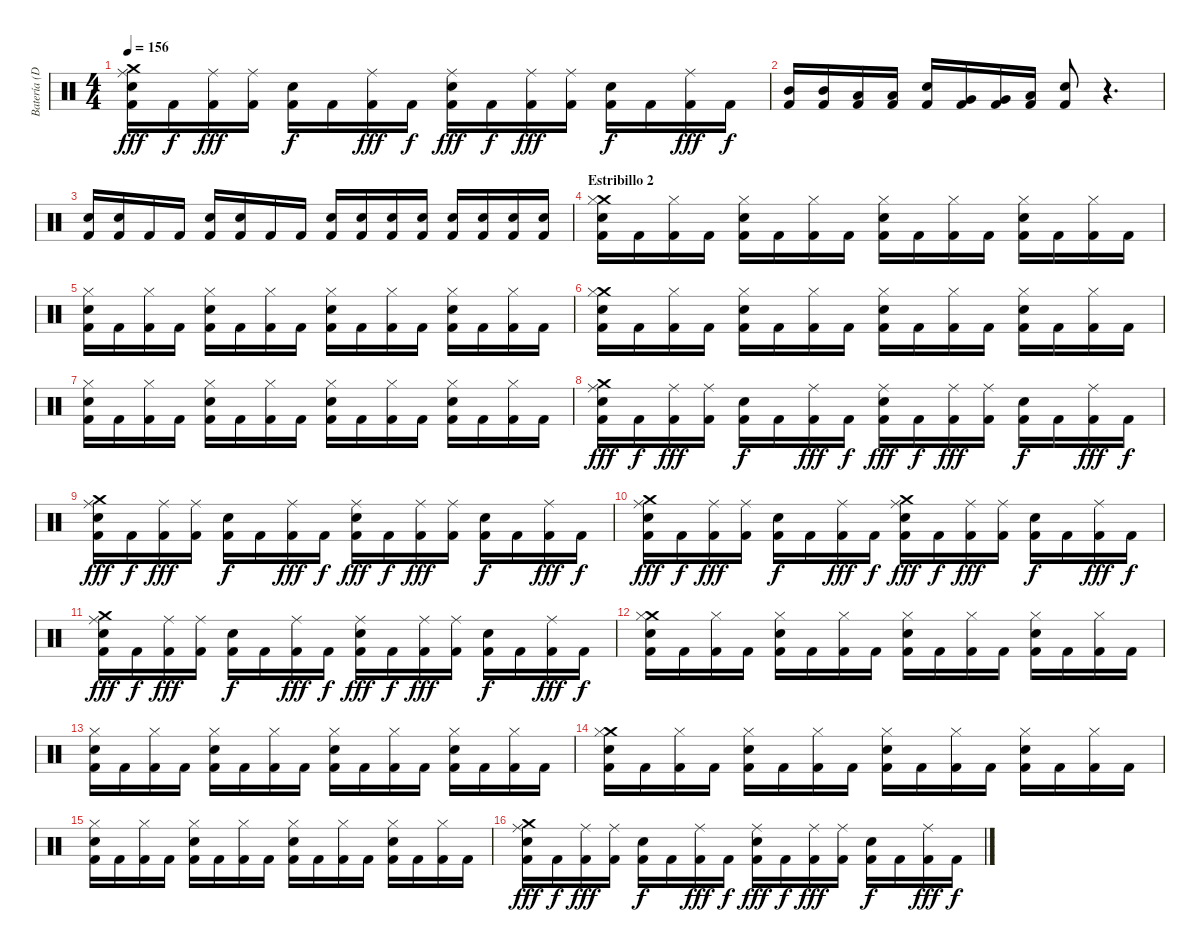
\track ("Batería (Dani)" "Batería (D") {instrument percussion}
\staff {score}
\articulation defaults
\ts (4 4)
\tempo 156
\clef neutral
\ks c
("Crash medium (hit)" "Ride (middle)" "Snare (hit) 2" "Kick (hit) 2").16{dy fff} "Kick (hit) 2".16{dy f} ("Ride (middle)" "Kick (hit) 2").16{dy fff} ("Ride (middle)" "Kick (hit) 2").16 ("Snare (hit) 2" "Kick (hit) 2").16{dy f} "Kick (hit) 2".16 ("Ride (middle)" "Kick (hit) 2").16{dy fff} "Kick (hit) 2".16{dy f} ("Ride (middle)" "Snare (hit) 2" "Kick (hit) 2").16{dy fff} "Kick (hit) 2".16{dy f} ("Ride (middle)" "Kick (hit) 2").16{dy fff} ("Ride (middle)" "Kick (hit) 2").16 ("Snare (hit) 2" "Kick (hit) 2").16{dy f} "Kick (hit) 2".16 ("Ride (middle)" "Kick (hit) 2").16{dy fff} "Kick (hit) 2".16{dy f} |
("Mid Tom (hit)" "Kick (hit) 2").16 ("Mid Tom (hit)" "Kick (hit) 2").16 ("Low Tom (hit)" "Kick (hit) 2").16 ("Low Tom (hit)" "Kick (hit) 2").16 ("Snare (hit) 2" "Kick (hit) 2").16 ("Very Low Tom (hit)" "Kick (hit) 2").16 ("Very Low Tom (hit)" "Kick (hit) 2").16 ("Low Floor Tom (hit)" "Kick (hit) 2").16 ("Snare (hit) 2" "Kick (hit) 2").8 r.4{d} |
("Snare (hit) 2" "Kick (hit) 2").16 ("Snare (hit) 2" "Kick (hit) 2").16 "Kick (hit) 2".16 "Kick (hit) 2".16 ("Snare (hit) 2" "Kick (hit) 2").16 ("Snare (hit) 2" "Kick (hit) 2").16 "Kick (hit) 2".16 "Kick (hit) 2".16 ("Snare (hit) 2" "Kick (hit) 2").16 ("Snare (hit) 2" "Kick (hit) 2").16 ("Snare (hit) 2" "Kick (hit) 2").16 ("Snare (hit) 2" "Kick (hit) 2").16 ("Snare (hit) 2" "Kick (hit) 2").16 ("Snare (hit) 2" "Kick (hit) 2").16 ("Snare (hit) 2" "Kick (hit) 2").16 ("Snare (hit) 2" "Kick (hit) 2").16 |
\section ("" "Estribillo 2")
("Crash medium (hit)" "Hi-Hat (closed)" "Snare (hit) 2" "Kick (hit) 2").16 "Kick (hit) 2".16 ("Hi-Hat (closed)" "Kick (hit) 2").16 "Kick (hit) 2".16 ("Hi-Hat (closed)" "Snare (hit) 2" "Kick (hit) 2").16 "Kick (hit) 2".16 ("Hi-Hat (closed)" "Kick (hit) 2").16 "Kick (hit) 2".16 ("Hi-Hat (closed)" "Snare (hit) 2" "Kick (hit) 2").16 "Kick (hit) 2".16 ("Hi-Hat (closed)" "Kick (hit) 2").16 "Kick (hit) 2".16 ("Hi-Hat (closed)" "Snare (hit) 2" "Kick (hit) 2").16 "Kick (hit) 2".16 ("Hi-Hat (closed)" "Kick (hit) 2").16 "Kick (hit) 2".16 |
("Hi-Hat (closed)" "Snare (hit) 2" "Kick (hit) 2").16 "Kick (hit) 2".16 ("Hi-Hat (closed)" "Kick (hit) 2").16 "Kick (hit) 2".16 ("Hi-Hat (closed)" "Snare (hit) 2" "Kick (hit) 2").16 "Kick (hit) 2".16 ("Hi-Hat (closed)" "Kick (hit) 2").16 "Kick (hit) 2".16 ("Hi-Hat (closed)" "Snare (hit) 2" "Kick (hit) 2").16 "Kick (hit) 2".16 ("Hi-Hat (closed)" "Kick (hit) 2").16 "Kick (hit) 2".16 ("Hi-Hat (closed)" "Snare (hit) 2" "Kick (hit) 2").16 "Kick (hit) 2".16 ("Hi-Hat (closed)" "Kick (hit) 2").16 "Kick (hit) 2".16 |
("Crash medium (hit)" "Hi-Hat (closed)" "Snare (hit) 2" "Kick (hit) 2").16 "Kick (hit) 2".16 ("Hi-Hat (closed)" "Kick (hit) 2").16 "Kick (hit) 2".16 ("Hi-Hat (closed)" "Snare (hit) 2" "Kick (hit) 2").16 "Kick (hit) 2".16 ("Hi-Hat (closed)" "Kick (hit) 2").16 "Kick (hit) 2".16 ("Hi-Hat (closed)" "Snare (hit) 2" "Kick (hit) 2").16 "Kick (hit) 2".16 ("Hi-Hat (closed)" "Kick (hit) 2").16 "Kick (hit) 2".16 ("Hi-Hat (closed)" "Snare (hit) 2" "Kick (hit) 2").16 "Kick (hit) 2".16 ("Hi-Hat (closed)" "Kick (hit) 2").16 "Kick (hit) 2".16 |
("Hi-Hat (closed)" "Snare (hit) 2" "Kick (hit) 2").16 "Kick (hit) 2".16 ("Hi-Hat (closed)" "Kick (hit) 2").16 "Kick (hit) 2".16 ("Hi-Hat (closed)" "Snare (hit) 2" "Kick (hit) 2").16 "Kick (hit) 2".16 ("Hi-Hat (closed)" "Kick (hit) 2").16 "Kick (hit) 2".16 ("Hi-Hat (closed)" "Snare (hit) 2" "Kick (hit) 2").16 "Kick (hit) 2".16 ("Hi-Hat (closed)" "Kick (hit) 2").16 "Kick (hit) 2".16 ("Hi-Hat (closed)" "Snare (hit) 2" "Kick (hit) 2").16 "Kick (hit) 2".16 ("Hi-Hat (closed)" "Kick (hit) 2").16 "Kick (hit) 2".16 |
("Crash medium (hit)" "Ride (middle)" "Snare (hit) 2" "Kick (hit) 2").16{dy fff} "Kick (hit) 2".16{dy f} ("Ride (middle)" "Kick (hit) 2").16{dy fff} ("Ride (middle)" "Kick (hit) 2").16 ("Snare (hit) 2" "Kick (hit) 2").16{dy f} "Kick (hit) 2".16 ("Ride (middle)" "Kick (hit) 2").16{dy fff} "Kick (hit) 2".16{dy f} ("Ride (middle)" "Snare (hit) 2" "Kick (hit) 2").16{dy fff} "Kick (hit) 2".16{dy f} ("Ride (middle)" "Kick (hit) 2").16{dy fff} ("Ride (middle)" "Kick (hit) 2").16 ("Snare (hit) 2" "Kick (hit) 2").16{dy f} "Kick (hit) 2".16 ("Ride (middle)" "Kick (hit) 2").16{dy fff} "Kick (hit) 2".16{dy f} |
("Crash medium (hit)" "Ride (middle)" "Snare (hit) 2" "Kick (hit) 2").16{dy fff} "Kick (hit) 2".16{dy f} ("Ride (middle)" "Kick (hit) 2").16{dy fff} ("Ride (middle)" "Kick (hit) 2").16 ("Snare (hit) 2" "Kick (hit) 2").16{dy f} "Kick (hit) 2".16 ("Ride (middle)" "Kick (hit) 2").16{dy fff} "Kick (hit) 2".16{dy f} ("Ride (middle)" "Snare (hit) 2" "Kick (hit) 2").16{dy fff} "Kick (hit) 2".16{dy f} ("Ride (middle)" "Kick (hit) 2").16{dy fff} ("Ride (middle)" "Kick (hit) 2").16 ("Snare (hit) 2" "Kick (hit) 2").16{dy f} "Kick (hit) 2".16 ("Ride (middle)" "Kick (hit) 2").16{dy fff} "Kick (hit) 2".16{dy f} |
("Crash medium (hit)" "Ride (middle)" "Snare (hit) 2" "Kick (hit) 2").16{dy fff} "Kick (hit) 2".16{dy f} ("Ride (middle)" "Kick (hit) 2").16{dy fff} ("Ride (middle)" "Kick (hit) 2").16 ("Snare (hit) 2" "Kick (hit) 2").16{dy f} "Kick (hit) 2".16 ("Ride (middle)" "Kick (hit) 2").16{dy fff} "Kick (hit) 2".16{dy f} ("Crash medium (hit)" "Ride (middle)" "Snare (hit) 2" "Kick (hit) 2").16{dy fff} "Kick (hit) 2".16{dy f} ("Ride (middle)" "Kick (hit) 2").16{dy fff} ("Ride (middle)" "Kick (hit) 2").16 ("Snare (hit) 2" "Kick (hit) 2").16{dy f} "Kick (hit) 2".16 ("Ride (middle)" "Kick (hit) 2").16{dy fff} "Kick (hit) 2".16{dy f} |
("Crash medium (hit)" "Ride (middle)" "Snare (hit) 2" "Kick (hit) 2").16{dy fff} "Kick (hit) 2".16{dy f} ("Ride (middle)" "Kick (hit) 2").16{dy fff} ("Ride (middle)" "Kick (hit) 2").16 ("Snare (hit) 2" "Kick (hit) 2").16{dy f} "Kick (hit) 2".16 ("Ride (middle)" "Kick (hit) 2").16{dy fff} "Kick (hit) 2".16{dy f} ("Ride (middle)" "Snare (hit) 2" "Kick (hit) 2").16{dy fff} "Kick (hit) 2".16{dy f} ("Ride (middle)" "Kick (hit) 2").16{dy fff} ("Ride (middle)" "Kick (hit) 2").16 ("Snare (hit) 2" "Kick (hit) 2").16{dy f} "Kick (hit) 2".16 ("Ride (middle)" "Kick (hit) 2").16{dy fff} "Kick (hit) 2".16{dy f} |
("Crash medium (hit)" "Hi-Hat (closed)" "Snare (hit) 2" "Kick (hit) 2").16 "Kick (hit) 2".16 ("Hi-Hat (closed)" "Kick (hit) 2").16 "Kick (hit) 2".16 ("Hi-Hat (closed)" "Snare (hit) 2" "Kick (hit) 2").16 "Kick (hit) 2".16 ("Hi-Hat (closed)" "Kick (hit) 2").16 "Kick (hit) 2".16 ("Hi-Hat (closed)" "Snare (hit) 2" "Kick (hit) 2").16 "Kick (hit) 2".16 ("Hi-Hat (closed)" "Kick (hit) 2").16 "Kick (hit) 2".16 ("Hi-Hat (closed)" "Snare (hit) 2" "Kick (hit) 2").16 "Kick (hit) 2".16 ("Hi-Hat (closed)" "Kick (hit) 2").16 "Kick (hit) 2".16 |
("Hi-Hat (closed)" "Snare (hit) 2" "Kick (hit) 2").16 "Kick (hit) 2".16 ("Hi-Hat (closed)" "Kick (hit) 2").16 "Kick (hit) 2".16 ("Hi-Hat (closed)" "Snare (hit) 2" "Kick (hit) 2").16 "Kick (hit) 2".16 ("Hi-Hat (closed)" "Kick (hit) 2").16 "Kick (hit) 2".16 ("Hi-Hat (closed)" "Snare (hit) 2" "Kick (hit) 2").16 "Kick (hit) 2".16 ("Hi-Hat (closed)" "Kick (hit) 2").16 "Kick (hit) 2".16 ("Hi-Hat (closed)" "Snare (hit) 2" "Kick (hit) 2").16 "Kick (hit) 2".16 ("Hi-Hat (closed)" "Kick (hit) 2").16 "Kick (hit) 2".16 |
("Crash medium (hit)" "Hi-Hat (closed)" "Snare (hit) 2" "Kick (hit) 2").16 "Kick (hit) 2".16 ("Hi-Hat (closed)" "Kick (hit) 2").16 "Kick (hit) 2".16 ("Hi-Hat (closed)" "Snare (hit) 2" "Kick (hit) 2").16 "Kick (hit) 2".16 ("Hi-Hat (closed)" "Kick (hit) 2").16 "Kick (hit) 2".16 ("Hi-Hat (closed)" "Snare (hit) 2" "Kick (hit) 2").16 "Kick (hit) 2".16 ("Hi-Hat (closed)" "Kick (hit) 2").16 "Kick (hit) 2".16 ("Hi-Hat (closed)" "Snare (hit) 2" "Kick (hit) 2").16 "Kick (hit) 2".16 ("Hi-Hat (closed)" "Kick (hit) 2").16 "Kick (hit) 2".16 |
("Hi-Hat (closed)" "Snare (hit) 2" "Kick (hit) 2").16 "Kick (hit) 2".16 ("Hi-Hat (closed)" "Kick (hit) 2").16 "Kick (hit) 2".16 ("Hi-Hat (closed)" "Snare (hit) 2" "Kick (hit) 2").16 "Kick (hit) 2".16 ("Hi-Hat (closed)" "Kick (hit) 2").16 "Kick (hit) 2".16 ("Hi-Hat (closed)" "Snare (hit) 2" "Kick (hit) 2").16 "Kick (hit) 2".16 ("Hi-Hat (closed)" "Kick (hit) 2").16 "Kick (hit) 2".16 ("Hi-Hat (closed)" "Snare (hit) 2" "Kick (hit) 2").16 "Kick (hit) 2".16 ("Hi-Hat (closed)" "Kick (hit) 2").16 "Kick (hit) 2".16 |
("Crash medium (hit)" "Ride (middle)" "Snare (hit) 2" "Kick (hit) 2").16{dy fff} "Kick (hit) 2".16{dy f} ("Ride (middle)" "Kick (hit) 2").16{dy fff} ("Ride (middle)" "Kick (hit) 2").16 ("Snare (hit) 2" "Kick (hit) 2").16{dy f} "Kick (hit) 2".16 ("Ride (middle)" "Kick (hit) 2").16{dy fff} "Kick (hit) 2".16{dy f} ("Ride (middle)" "Snare (hit) 2" "Kick (hit) 2").16{dy fff} "Kick (hit) 2".16{dy f} ("Ride (middle)" "Kick (hit) 2").16{dy fff} ("Ride (middle)" "Kick (hit) 2").16 ("Snare (hit) 2" "Kick (hit) 2").16{dy f} "Kick (hit) 2".16 ("Ride (middle)" "Kick (hit) 2").16{dy fff} "Kick (hit) 2".16{dy f}
